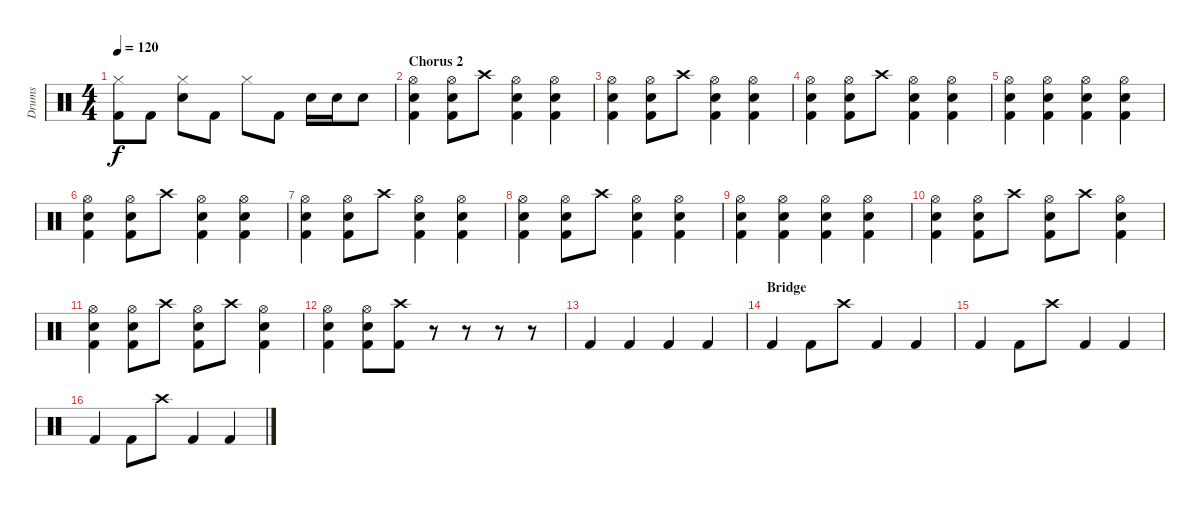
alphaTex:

\track ("Drums" "Drums") {instrument percussion}
\staff {score}
\articulation defaults
\ts (4 4)
\tempo 120
\clef neutral
\ks c
("Hi-Hat (closed)" "Kick (hit) 2").8{dy f} "Kick (hit) 2".8 ("Hi-Hat (closed)" "Snare (hit) 2").8 "Kick (hit) 2".8 "Hi-Hat (closed)".8 "Kick (hit) 2".8 "Snare (hit) 2".16 "Snare (hit) 2".16 "Snare (hit) 2".8 |
\section ("" "Chorus 2")
("Hi-Hat (open)" "Snare (hit) 2" "Kick (hit) 2").4 ("Hi-Hat (open)" "Snare (hit) 2" "Kick (hit) 2").8 "Crash high (hit)".8 ("Hi-Hat (open)" "Snare (hit) 2" "Kick (hit) 2").4 ("Hi-Hat (open)" "Snare (hit) 2" "Kick (hit) 2").4 |
("Hi-Hat (open)" "Snare (hit) 2" "Kick (hit) 2").4 ("Hi-Hat (open)" "Snare (hit) 2" "Kick (hit) 2").8 "Crash high (hit)".8 ("Hi-Hat (open)" "Snare (hit) 2" "Kick (hit) 2").4 ("Hi-Hat (open)" "Snare (hit) 2" "Kick (hit) 2").4 |
("Hi-Hat (open)" "Snare (hit) 2" "Kick (hit) 2").4 ("Hi-Hat (open)" "Snare (hit) 2" "Kick (hit) 2").8 "Crash high (hit)".8 ("Hi-Hat (open)" "Snare (hit) 2" "Kick (hit) 2").4 ("Hi-Hat (open)" "Snare (hit) 2" "Kick (hit) 2").4 |
("Hi-Hat (open)" "Snare (hit) 2" "Kick (hit) 2").4 ("Hi-Hat (open)" "Snare (hit) 2" "Kick (hit) 2").4 ("Hi-Hat (open)" "Snare (hit) 2" "Kick (hit) 2").4 ("Hi-Hat (open)" "Snare (hit) 2" "Kick (hit) 2").4 |
("Hi-Hat (open)" "Snare (hit) 2" "Kick (hit) 2").4 ("Hi-Hat (open)" "Snare (hit) 2" "Kick (hit) 2").8 "Crash high (hit)".8 ("Hi-Hat (open)" "Snare (hit) 2" "Kick (hit) 2").4 ("Hi-Hat (open)" "Snare (hit) 2" "Kick (hit) 2").4 |
("Hi-Hat (open)" "Snare (hit) 2" "Kick (hit) 2").4 ("Hi-Hat (open)" "Snare (hit) 2" "Kick (hit) 2").8 "Crash high (hit)".8 ("Hi-Hat (open)" "Snare (hit) 2" "Kick (hit) 2").4 ("Hi-Hat (open)" "Snare (hit) 2" "Kick (hit) 2").4 |
("Hi-Hat (open)" "Snare (hit) 2" "Kick (hit) 2").4 ("Hi-Hat (open)" "Snare (hit) 2" "Kick (hit) 2").8 "Crash high (hit)".8 ("Hi-Hat (open)" "Snare (hit) 2" "Kick (hit) 2").4 ("Hi-Hat (open)" "Snare (hit) 2" "Kick (hit) 2").4 |
("Hi-Hat (open)" "Snare (hit) 2" "Kick (hit) 2").4 ("Hi-Hat (open)" "Snare (hit) 2" "Kick (hit) 2").4 ("Hi-Hat (open)" "Snare (hit) 2" "Kick (hit) 2").4 ("Hi-Hat (open)" "Snare (hit) 2" "Kick (hit) 2").4 |
("Hi-Hat (open)" "Snare (hit) 2" "Kick (hit) 2").4 ("Hi-Hat (open)" "Snare (hit) 2" "Kick (hit) 2").8 "Crash high (hit)".8 ("Hi-Hat (open)" "Snare (hit) 2" "Kick (hit) 2").8 "Crash high (hit)".8 ("Hi-Hat (open)" "Snare (hit) 2" "Kick (hit) 2").4 |
("Hi-Hat (open)" "Snare (hit) 2" "Kick (hit) 2").4 ("Hi-Hat (open)" "Snare (hit) 2" "Kick (hit) 2").8 "Crash high (hit)".8 ("Hi-Hat (open)" "Snare (hit) 2" "Kick (hit) 2").8 "Crash high (hit)".8 ("Hi-Hat (open)" "Snare (hit) 2" "Kick (hit) 2").4 |
("Hi-Hat (open)" "Snare (hit) 2" "Kick (hit) 2").4 ("Hi-Hat (open)" "Snare (hit) 2" "Kick (hit) 2").8 ("Crash high (hit)" "Kick (hit) 2").8 r.8 r.8 r.8 r.8 |
"Kick (hit) 2".4 "Kick (hit) 2".4 "Kick (hit) 2".4 "Kick (hit) 2".4 |
\section ("" "Bridge")
"Kick (hit) 2".4 "Kick (hit) 2".8 "Crash high (hit)".8 "Kick (hit) 2".4 "Kick (hit) 2".4 |
"Kick (hit) 2".4 "Kick (hit) 2".8 "Crash high (hit)".8 "Kick (hit) 2".4 "Kick (hit) 2".4 |
"Kick (hit) 2".4 "Kick (hit) 2".8 "Crash high (hit)".8 "Kick (hit) 2".4 "Kick (hit) 2".4
